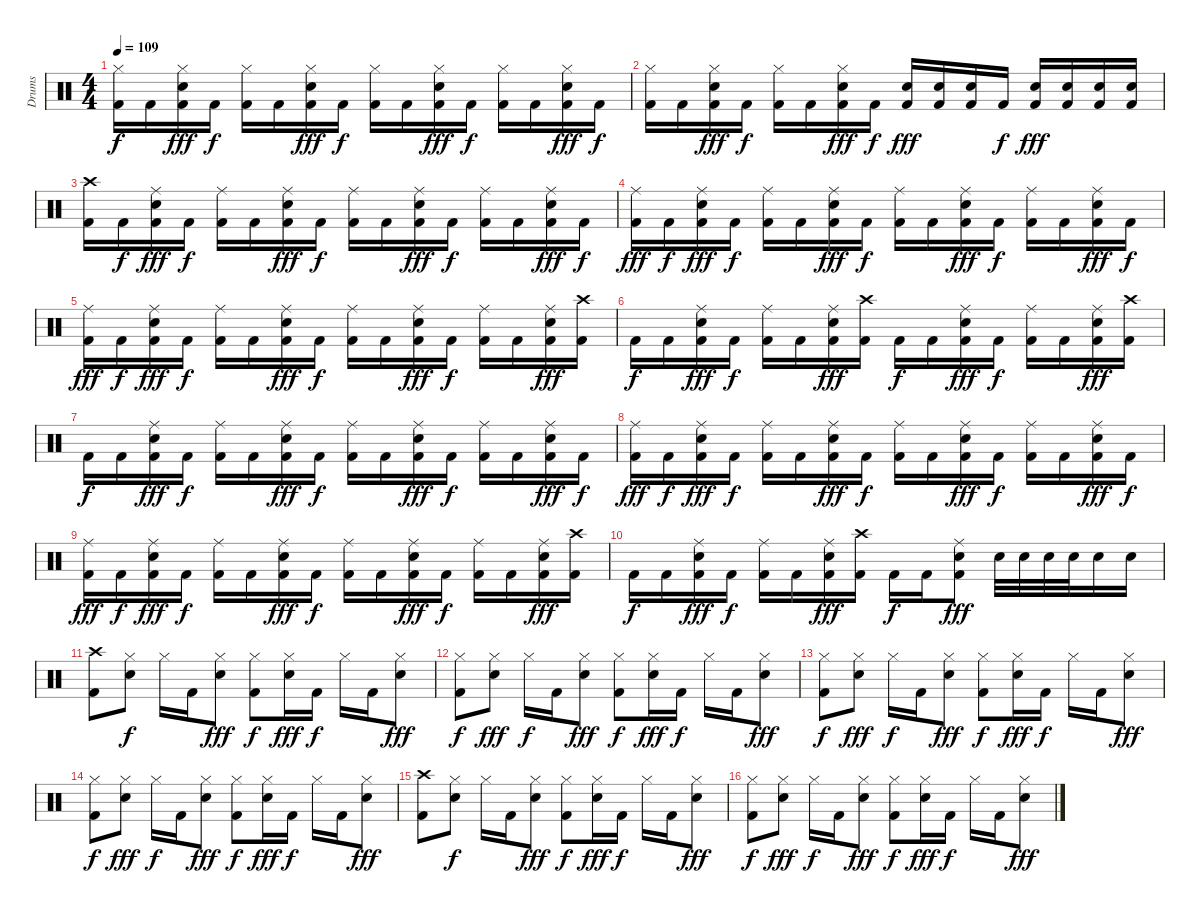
\track ("Drums" "Drums") {instrument percussion}
\staff {score}
\articulation defaults
\ts (4 4)
\tempo 109
\clef neutral
\ks c
("Hi-Hat (closed)" "Kick (hit) 2").16{dy f} "Kick (hit) 2".16 ("Kick (hit) 2" "Snare (hit) 2" "Hi-Hat (closed)").16{dy fff} "Kick (hit) 2".16{dy f} ("Hi-Hat (closed)" "Kick (hit) 2").16 "Kick (hit) 2".16 ("Kick (hit) 2" "Snare (hit) 2" "Hi-Hat (closed)").16{dy fff} "Kick (hit) 2".16{dy f} ("Hi-Hat (closed)" "Kick (hit) 2").16 "Kick (hit) 2".16 ("Kick (hit) 2" "Snare (hit) 2" "Hi-Hat (closed)").16{dy fff} "Kick (hit) 2".16{dy f} ("Hi-Hat (closed)" "Kick (hit) 2").16 "Kick (hit) 2".16 ("Kick (hit) 2" "Snare (hit) 2" "Hi-Hat (closed)").16{dy fff} "Kick (hit) 2".16{dy f} |
("Kick (hit) 2" "Hi-Hat (closed)").16 "Kick (hit) 2".16 ("Hi-Hat (closed)" "Kick (hit) 2" "Snare (hit) 2").16{dy fff} "Kick (hit) 2".16{dy f} ("Kick (hit) 2" "Hi-Hat (closed)").16 "Kick (hit) 2".16 ("Hi-Hat (closed)" "Kick (hit) 2" "Snare (hit) 2").16{dy fff} "Kick (hit) 2".16{dy f} ("Kick (hit) 2" "Snare (hit) 2").16{dy fff} ("Kick (hit) 2" "Snare (hit) 2").16 ("Kick (hit) 2" "Snare (hit) 2").16 "Kick (hit) 2".16{dy f} ("Kick (hit) 2" "Snare (hit) 2").16{dy fff} ("Kick (hit) 2" "Snare (hit) 2").16 ("Kick (hit) 2" "Snare (hit) 2").16 ("Kick (hit) 2" "Snare (hit) 2").16 |
("Kick (hit) 2" "Crash high (hit)").16 "Kick (hit) 2".16{dy f} ("Kick (hit) 2" "Snare (hit) 2" "Ride (middle)").16{dy fff} "Kick (hit) 2".16{dy f} ("Kick (hit) 2" "Ride (middle)").16 "Kick (hit) 2".16 ("Kick (hit) 2" "Ride (middle)" "Snare (hit) 2").16{dy fff} "Kick (hit) 2".16{dy f} ("Kick (hit) 2" "Ride (middle)").16 "Kick (hit) 2".16 ("Kick (hit) 2" "Ride (middle)" "Snare (hit) 2").16{dy fff} "Kick (hit) 2".16{dy f} ("Kick (hit) 2" "Ride (middle)").16 "Kick (hit) 2".16 ("Snare (hit) 2" "Ride (middle)" "Kick (hit) 2").16{dy fff} "Kick (hit) 2".16{dy f} |
("Kick (hit) 2" "Ride (middle)").16{dy fff} "Kick (hit) 2".16{dy f} ("Kick (hit) 2" "Ride (middle)" "Snare (hit) 2").16{dy fff} "Kick (hit) 2".16{dy f} ("Kick (hit) 2" "Ride (middle)").16 "Kick (hit) 2".16 ("Snare (hit) 2" "Kick (hit) 2" "Ride (middle)").16{dy fff} "Kick (hit) 2".16{dy f} ("Ride (middle)" "Kick (hit) 2").16 "Kick (hit) 2".16 ("Kick (hit) 2" "Snare (hit) 2" "Ride (middle)").16{dy fff} "Kick (hit) 2".16{dy f} ("Kick (hit) 2" "Ride (middle)").16 "Kick (hit) 2".16 ("Ride (middle)" "Kick (hit) 2" "Snare (hit) 2").16{dy fff} "Kick (hit) 2".16{dy f} |
("Kick (hit) 2" "Ride (middle)").16{dy fff} "Kick (hit) 2".16{dy f} ("Kick (hit) 2" "Ride (middle)" "Snare (hit) 2").16{dy fff} "Kick (hit) 2".16{dy f} ("Kick (hit) 2" "Ride (middle)").16 "Kick (hit) 2".16 ("Snare (hit) 2" "Kick (hit) 2" "Ride (middle)").16{dy fff} "Kick (hit) 2".16{dy f} ("Ride (middle)" "Kick (hit) 2").16 "Kick (hit) 2".16 ("Kick (hit) 2" "Snare (hit) 2" "Ride (middle)").16{dy fff} "Kick (hit) 2".16{dy f} ("Kick (hit) 2" "Ride (middle)").16 "Kick (hit) 2".16 ("Snare (hit) 2" "Ride (middle)" "Kick (hit) 2").16{dy fff} ("Kick (hit) 2" "Crash high (hit)").16 |
"Kick (hit) 2".16{dy f} "Kick (hit) 2".16 ("Snare (hit) 2" "Kick (hit) 2" "Ride (middle)").16{dy fff} "Kick (hit) 2".16{dy f} ("Kick (hit) 2" "Ride (middle)").16 "Kick (hit) 2".16 ("Ride (middle)" "Kick (hit) 2" "Snare (hit) 2").16{dy fff} ("Kick (hit) 2" "Crash high (hit)").16 "Kick (hit) 2".16{dy f} "Kick (hit) 2".16 ("Snare (hit) 2" "Kick (hit) 2" "Ride (middle)").16{dy fff} "Kick (hit) 2".16{dy f} ("Ride (middle)" "Kick (hit) 2").16 "Kick (hit) 2".16 ("Ride (middle)" "Kick (hit) 2" "Snare (hit) 2").16{dy fff} ("Kick (hit) 2" "Crash high (hit)").16 |
"Kick (hit) 2".16{dy f} "Kick (hit) 2".16 ("Kick (hit) 2" "Ride (middle)" "Snare (hit) 2").16{dy fff} "Kick (hit) 2".16{dy f} ("Kick (hit) 2" "Ride (middle)").16 "Kick (hit) 2".16 ("Snare (hit) 2" "Kick (hit) 2" "Ride (middle)").16{dy fff} "Kick (hit) 2".16{dy f} ("Ride (middle)" "Kick (hit) 2").16 "Kick (hit) 2".16 ("Kick (hit) 2" "Snare (hit) 2" "Ride (middle)").16{dy fff} "Kick (hit) 2".16{dy f} ("Kick (hit) 2" "Ride (middle)").16 "Kick (hit) 2".16 ("Ride (middle)" "Kick (hit) 2" "Snare (hit) 2").16{dy fff} "Kick (hit) 2".16{dy f} |
("Kick (hit) 2" "Ride (middle)").16{dy fff} "Kick (hit) 2".16{dy f} ("Kick (hit) 2" "Ride (middle)" "Snare (hit) 2").16{dy fff} "Kick (hit) 2".16{dy f} ("Kick (hit) 2" "Ride (middle)").16 "Kick (hit) 2".16 ("Snare (hit) 2" "Kick (hit) 2" "Ride (middle)").16{dy fff} "Kick (hit) 2".16{dy f} ("Ride (middle)" "Kick (hit) 2").16 "Kick (hit) 2".16 ("Kick (hit) 2" "Snare (hit) 2" "Ride (middle)").16{dy fff} "Kick (hit) 2".16{dy f} ("Kick (hit) 2" "Ride (middle)").16 "Kick (hit) 2".16 ("Ride (middle)" "Kick (hit) 2" "Snare (hit) 2").16{dy fff} "Kick (hit) 2".16{dy f} |
("Kick (hit) 2" "Ride (middle)").16{dy fff} "Kick (hit) 2".16{dy f} ("Kick (hit) 2" "Ride (middle)" "Snare (hit) 2").16{dy fff} "Kick (hit) 2".16{dy f} ("Kick (hit) 2" "Ride (middle)").16 "Kick (hit) 2".16 ("Snare (hit) 2" "Kick (hit) 2" "Ride (middle)").16{dy fff} "Kick (hit) 2".16{dy f} ("Ride (middle)" "Kick (hit) 2").16 "Kick (hit) 2".16 ("Kick (hit) 2" "Snare (hit) 2" "Ride (middle)").16{dy fff} "Kick (hit) 2".16{dy f} ("Kick (hit) 2" "Ride (middle)").16 "Kick (hit) 2".16 ("Snare (hit) 2" "Ride (middle)" "Kick (hit) 2").16{dy fff} ("Crash high (hit)" "Kick (hit) 2").16 |
"Kick (hit) 2".16{dy f} "Kick (hit) 2".16 ("Kick (hit) 2" "Snare (hit) 2" "Ride (middle)").16{dy fff} "Kick (hit) 2".16{dy f} ("Kick (hit) 2" "Ride (middle)").16 "Kick (hit) 2".16 ("Snare (hit) 2" "Ride (middle)" "Kick (hit) 2").16{dy fff} ("Crash high (hit)" "Kick (hit) 2").16 "Kick (hit) 2".16{dy f} "Kick (hit) 2".16 ("Ride (middle)" "Kick (hit) 2" "Snare (hit) 2").8{dy fff} "Snare (hit) 2".32 "Snare (hit) 2".32 "Snare (hit) 2".32 "Snare (hit) 2".32 "Snare (hit) 2".16 "Snare (hit) 2".16 |
("Kick (hit) 2" "Crash high (hit)").8 ("Snare (hit) 2" "Hi-Hat (closed)").8{dy f} "Hi-Hat (closed)".16 "Kick (hit) 2".16 ("Hi-Hat (closed)" "Snare (hit) 2").8{dy fff} ("Hi-Hat (closed)" "Kick (hit) 2").8{dy f} ("Hi-Hat (closed)" "Snare (hit) 2").16{dy fff} "Kick (hit) 2".16{dy f} "Hi-Hat (closed)".16 "Kick (hit) 2".16 ("Hi-Hat (closed)" "Snare (hit) 2").8{dy fff} |
("Hi-Hat (closed)" "Kick (hit) 2").8{dy f} ("Hi-Hat (closed)" "Snare (hit) 2").8{dy fff} "Hi-Hat (closed)".16{dy f} "Kick (hit) 2".16 ("Hi-Hat (closed)" "Snare (hit) 2").8{dy fff} ("Kick (hit) 2" "Hi-Hat (closed)").8{dy f} ("Hi-Hat (closed)" "Snare (hit) 2").16{dy fff} "Kick (hit) 2".16{dy f} "Hi-Hat (closed)".16 "Kick (hit) 2".16 ("Hi-Hat (closed)" "Snare (hit) 2").8{dy fff} |
("Hi-Hat (closed)" "Kick (hit) 2").8{dy f} ("Hi-Hat (closed)" "Snare (hit) 2").8{dy fff} "Hi-Hat (closed)".16{dy f} "Kick (hit) 2".16 ("Hi-Hat (closed)" "Snare (hit) 2").8{dy fff} ("Kick (hit) 2" "Hi-Hat (closed)").8{dy f} ("Hi-Hat (closed)" "Snare (hit) 2").16{dy fff} "Kick (hit) 2".16{dy f} "Hi-Hat (closed)".16 "Kick (hit) 2".16 ("Hi-Hat (closed)" "Snare (hit) 2").8{dy fff} |
("Hi-Hat (closed)" "Kick (hit) 2").8{dy f} ("Hi-Hat (closed)" "Snare (hit) 2").8{dy fff} "Hi-Hat (closed)".16{dy f} "Kick (hit) 2".16 ("Hi-Hat (closed)" "Snare (hit) 2").8{dy fff} ("Hi-Hat (closed)" "Kick (hit) 2").8{dy f} ("Snare (hit) 2" "Hi-Hat (closed)").16{dy fff} "Kick (hit) 2".16{dy f} "Hi-Hat (closed)".16 "Kick (hit) 2".16 ("Snare (hit) 2" "Hi-Hat (closed)").8{dy fff} |
("Kick (hit) 2" "Crash high (hit)").8 ("Snare (hit) 2" "Hi-Hat (closed)").8{dy f} "Hi-Hat (closed)".16 "Kick (hit) 2".16 ("Hi-Hat (closed)" "Snare (hit) 2").8{dy fff} ("Hi-Hat (closed)" "Kick (hit) 2").8{dy f} ("Hi-Hat (closed)" "Snare (hit) 2").16{dy fff} "Kick (hit) 2".16{dy f} "Hi-Hat (closed)".16 "Kick (hit) 2".16 ("Hi-Hat (closed)" "Snare (hit) 2").8{dy fff} |
("Hi-Hat (closed)" "Kick (hit) 2").8{dy f} ("Hi-Hat (closed)" "Snare (hit) 2").8{dy fff} "Hi-Hat (closed)".16{dy f} "Kick (hit) 2".16 ("Hi-Hat (closed)" "Snare (hit) 2").8{dy fff} ("Kick (hit) 2" "Hi-Hat (closed)").8{dy f} ("Hi-Hat (closed)" "Snare (hit) 2").16{dy fff} "Kick (hit) 2".16{dy f} "Hi-Hat (closed)".16 "Kick (hit) 2".16 ("Hi-Hat (closed)" "Snare (hit) 2").8{dy fff}
